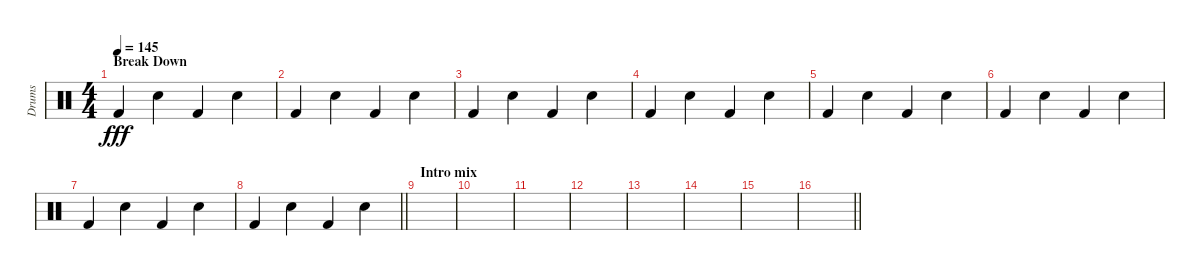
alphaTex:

\track ("Drums" "Drums") {instrument percussion}
\staff {score}
\articulation defaults
\ts (4 4)
\section ("" "Break Down")
\tempo 145
\clef neutral
\ks c "Kick (hit) 2".4{dy fff} "Electric Snare (hit)".4 "Kick (hit) 2".4 "Electric Snare (hit)".4
|
"Kick (hit) 2".4 "Electric Snare (hit)".4 "Kick (hit) 2".4 "Electric Snare (hit)".4 |
"Kick (hit) 2".4 "Electric Snare (hit)".4 "Kick (hit) 2".4 "Electric Snare (hit)".4 |
"Kick (hit) 2".4 "Electric Snare (hit)".4 "Kick (hit) 2".4 "Electric Snare (hit)".4 |
"Kick (hit) 2".4 "Electric Snare (hit)".4 "Kick (hit) 2".4 "Electric Snare (hit)".4 |
"Kick (hit) 2".4 "Electric Snare (hit)".4 "Kick (hit) 2".4 "Electric Snare (hit)".4 |
"Kick (hit) 2".4 "Electric Snare (hit)".4 "Kick (hit) 2".4 "Electric Snare (hit)".4 |
\barLineRight lightlight "Kick (hit) 2".4 "Electric Snare (hit)".4 "Kick (hit) 2".4 "Electric Snare (hit)".4
|
\section ("" "Intro mix")
|
|
|
|
|
|
|
\barLineRight lightlight
